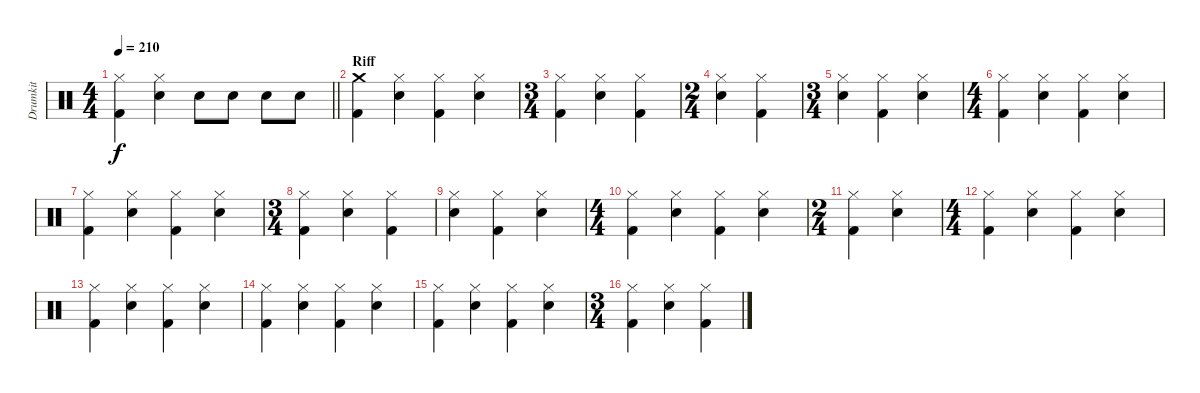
\track ("Drumkit" "Drumkit") {instrument percussion}
\staff {score}
\articulation defaults
\ts (4 4)
\tempo 210
\clef neutral
\barLineRight lightlight
\ks c
("Hi-Hat (closed)" "Kick (hit) 2").4{dy f} ("Hi-Hat (closed)" "Electric Snare (hit)").4 "Electric Snare (hit)".8 "Electric Snare (hit)".8 "Electric Snare (hit)".8 "Electric Snare (hit)".8 |
\section ("" "Riff")
("Crash medium (hit)" "Kick (hit) 2").4 ("Hi-Hat (closed)" "Electric Snare (hit)").4 ("Hi-Hat (closed)" "Kick (hit) 2").4 ("Hi-Hat (closed)" "Electric Snare (hit)").4 |
\ts (3 4)
("Hi-Hat (closed)" "Kick (hit) 2").4 ("Hi-Hat (closed)" "Electric Snare (hit)").4 ("Hi-Hat (closed)" "Kick (hit) 2").4 |
\ts (2 4)
("Hi-Hat (closed)" "Electric Snare (hit)").4 ("Hi-Hat (closed)" "Kick (hit) 2").4 |
\ts (3 4)
("Hi-Hat (closed)" "Electric Snare (hit)").4 ("Hi-Hat (closed)" "Kick (hit) 2").4 ("Hi-Hat (closed)" "Electric Snare (hit)").4 |
\ts (4 4)
("Hi-Hat (closed)" "Kick (hit) 2").4 ("Hi-Hat (closed)" "Electric Snare (hit)").4 ("Hi-Hat (closed)" "Kick (hit) 2").4 ("Hi-Hat (closed)" "Electric Snare (hit)").4 |
("Hi-Hat (closed)" "Kick (hit) 2").4 ("Hi-Hat (closed)" "Electric Snare (hit)").4 ("Hi-Hat (closed)" "Kick (hit) 2").4 ("Hi-Hat (closed)" "Electric Snare (hit)").4 |
\ts (3 4)
("Hi-Hat (closed)" "Kick (hit) 2").4 ("Hi-Hat (closed)" "Electric Snare (hit)").4 ("Hi-Hat (closed)" "Kick (hit) 2").4 |
("Hi-Hat (closed)" "Electric Snare (hit)").4 ("Hi-Hat (closed)" "Kick (hit) 2").4 ("Hi-Hat (closed)" "Electric Snare (hit)").4 |
\ts (4 4)
("Hi-Hat (closed)" "Kick (hit) 2").4 ("Hi-Hat (closed)" "Electric Snare (hit)").4 ("Hi-Hat (closed)" "Kick (hit) 2").4 ("Hi-Hat (closed)" "Electric Snare (hit)").4 |
\ts (2 4)
("Hi-Hat (closed)" "Kick (hit) 2").4 ("Hi-Hat (closed)" "Electric Snare (hit)").4 |
\ts (4 4)
("Hi-Hat (closed)" "Kick (hit) 2").4 ("Hi-Hat (closed)" "Electric Snare (hit)").4 ("Hi-Hat (closed)" "Kick (hit) 2").4 ("Hi-Hat (closed)" "Electric Snare (hit)").4 |
("Hi-Hat (closed)" "Kick (hit) 2").4 ("Hi-Hat (closed)" "Electric Snare (hit)").4 ("Hi-Hat (closed)" "Kick (hit) 2").4 ("Hi-Hat (closed)" "Electric Snare (hit)").4 |
("Hi-Hat (closed)" "Kick (hit) 2").4 ("Hi-Hat (closed)" "Electric Snare (hit)").4 ("Hi-Hat (closed)" "Kick (hit) 2").4 ("Hi-Hat (closed)" "Electric Snare (hit)").4 |
("Hi-Hat (closed)" "Kick (hit) 2").4 ("Hi-Hat (closed)" "Electric Snare (hit)").4 ("Hi-Hat (closed)" "Kick (hit) 2").4 ("Hi-Hat (closed)" "Electric Snare (hit)").4 |
\ts (3 4)
("Hi-Hat (closed)" "Kick (hit) 2").4 ("Hi-Hat (closed)" "Electric Snare (hit)").4 ("Hi-Hat (closed)" "Kick (hit) 2").4
